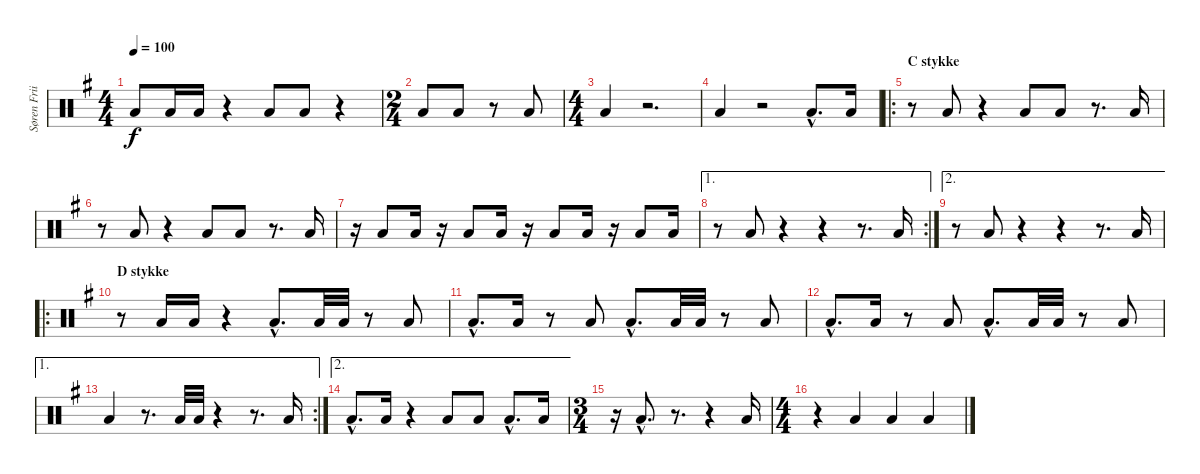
\track ("Søren Friis (Drums)" "Søren Frii") {instrument percussion}
\staff {score}
\articulation defaults
\ts (4 4)
\tempo 100
\clef neutral
\ks g "Low Floor Tom (hit)".8{dy f} "Low Floor Tom (hit)".16 "Low Floor Tom (hit)".16
r.4 "Low Floor Tom (hit)".8 "Low Floor Tom (hit)".8 r.4 |
\ts (2 4)
"Low Floor Tom (hit)".8 "Low Floor Tom (hit)".8 r.8 "Low Floor Tom (hit)".8 |
\ts (4 4)
"Low Floor Tom (hit)".4 r.2{d} |
"Low Floor Tom (hit)".4 r.2 "Low Floor Tom (hit)"{hac}.8{d} "Low Floor Tom (hit)".16 |
\ro
\section ("" "C stykke")
r.8 "Low Floor Tom (hit)".8 r.4 "Low Floor Tom (hit)".8 "Low Floor Tom (hit)".8 r.8{d} "Low Floor Tom (hit)".16 |
r.8 "Low Floor Tom (hit)".8 r.4 "Low Floor Tom (hit)".8 "Low Floor Tom (hit)".8 r.8{d} "Low Floor Tom (hit)".16 |
r.16 "Low Floor Tom (hit)".8 "Low Floor Tom (hit)".16 r.16 "Low Floor Tom (hit)".8 "Low Floor Tom (hit)".16 r.16 "Low Floor Tom (hit)".8 "Low Floor Tom (hit)".16 r.16 "Low Floor Tom (hit)".8 "Low Floor Tom (hit)".16 |
\ae 1
\rc 2
r.8 "Low Floor Tom (hit)".8 r.4 r.4 r.8{d} "Low Floor Tom (hit)".16 |
\ae 2
r.8 "Low Floor Tom (hit)".8 r.4 r.4 r.8{d} "Low Floor Tom (hit)".16 |
\ro
\section ("" "D stykke")
r.8 "Low Floor Tom (hit)".16 "Low Floor Tom (hit)".16 r.4 "Low Floor Tom (hit)"{hac}.8{d} "Low Floor Tom (hit)".32 "Low Floor Tom (hit)".32 r.8 "Low Floor Tom (hit)".8 |
"Low Floor Tom (hit)"{hac}.8{d} "Low Floor Tom (hit)".16 r.8 "Low Floor Tom (hit)".8 "Low Floor Tom (hit)"{hac}.8{d} "Low Floor Tom (hit)".32 "Low Floor Tom (hit)".32 r.8 "Low Floor Tom (hit)".8 |
"Low Floor Tom (hit)"{hac}.8{d} "Low Floor Tom (hit)".16 r.8 "Low Floor Tom (hit)".8 "Low Floor Tom (hit)"{hac}.8{d} "Low Floor Tom (hit)".32 "Low Floor Tom (hit)".32 r.8 "Low Floor Tom (hit)".8 |
\ae 1
\rc 2 "Low Floor Tom (hit)".4
r.8{d} "Low Floor Tom (hit)".32 "Low Floor Tom (hit)".32 r.4 r.8{d} "Low Floor Tom (hit)".16 |
\ae 2 "Low Floor Tom (hit)"{hac}.8{d} "Low Floor Tom (hit)".16
r.4 "Low Floor Tom (hit)".8 "Low Floor Tom (hit)".8 "Low Floor Tom (hit)"{hac}.8{d} "Low Floor Tom (hit)".16 |
\ts (3 4)
r.16 "Low Floor Tom (hit)"{hac}.8{d} r.8{d} r.4 "Low Floor Tom (hit)".16 |
\ts (4 4)
r.4 "Low Floor Tom (hit)".4 "Low Floor Tom (hit)".4 "Low Floor Tom (hit)".4
